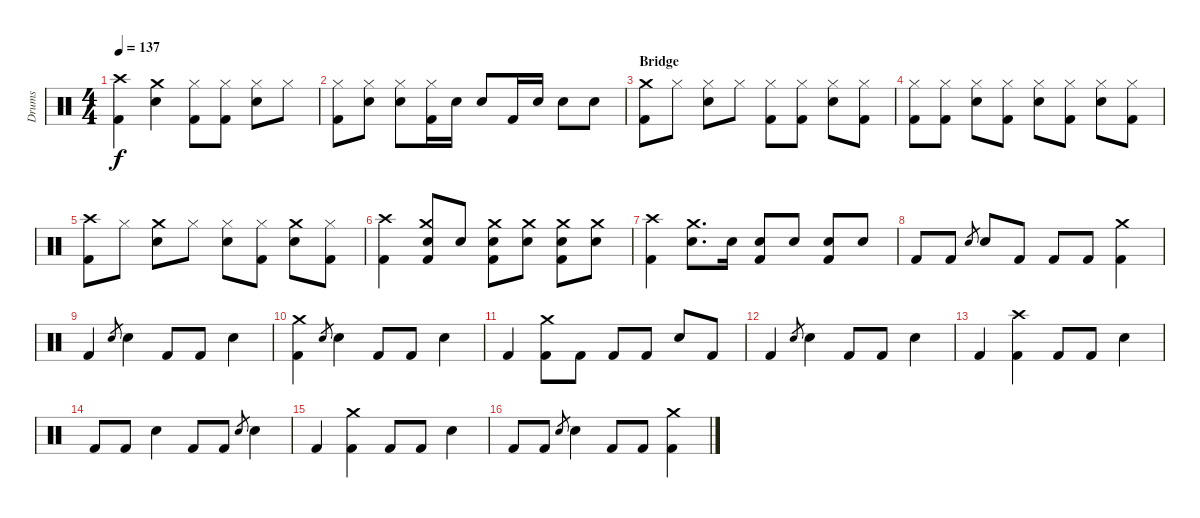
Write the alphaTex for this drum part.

\track ("Drums" "Drums") {instrument percussion}
\staff {score}
\articulation defaults
\ts (4 4)
\tempo 137
\clef neutral
\ks c
("Crash high (hit)" "Kick (hit) 2").4{dy f} ("Crash medium (hit)" "Snare (hit) 2").4 ("Hi-Hat (closed)" "Kick (hit) 2").8 ("Hi-Hat (closed)" "Kick (hit) 2").8 ("Hi-Hat (closed)" "Snare (hit) 2").8 "Hi-Hat (closed)".8 |
("Hi-Hat (closed)" "Kick (hit) 2").8 ("Hi-Hat (closed)" "Snare (hit) 2").8 ("Hi-Hat (closed)" "Snare (hit) 2").8 ("Hi-Hat (closed)" "Kick (hit) 2").16 "Snare (hit) 2".16 "Snare (hit) 2".8 "Kick (hit) 2".16 "Snare (hit) 2".16 "Snare (hit) 2".8 "Snare (hit) 2".8 |
\section ("" "Bridge")
("Crash medium (hit)" "Kick (hit) 2").8 "Hi-Hat (closed)".8 ("Hi-Hat (closed)" "Snare (hit) 2").8 "Hi-Hat (closed)".8 ("Hi-Hat (closed)" "Kick (hit) 2").8 ("Hi-Hat (closed)" "Kick (hit) 2").8 ("Hi-Hat (closed)" "Snare (hit) 2").8 ("Hi-Hat (closed)" "Kick (hit) 2").8 |
("Hi-Hat (closed)" "Kick (hit) 2").8 ("Hi-Hat (closed)" "Kick (hit) 2").8 ("Hi-Hat (closed)" "Snare (hit) 2").8 ("Hi-Hat (closed)" "Kick (hit) 2").8 ("Hi-Hat (closed)" "Snare (hit) 2").8 ("Hi-Hat (closed)" "Kick (hit) 2").8 ("Hi-Hat (closed)" "Snare (hit) 2").8 ("Hi-Hat (closed)" "Kick (hit) 2").8 |
("Crash high (hit)" "Kick (hit) 2").8 "Hi-Hat (closed)".8 ("Crash medium (hit)" "Snare (hit) 2").8 "Hi-Hat (closed)".8 ("Hi-Hat (closed)" "Snare (hit) 2").8 ("Hi-Hat (closed)" "Kick (hit) 2").8 ("Crash medium (hit)" "Snare (hit) 2").8 ("Hi-Hat (closed)" "Kick (hit) 2").8 |
("Crash high (hit)" "Kick (hit) 2").4 ("Crash medium (hit)" "Snare (hit) 2" "Kick (hit) 2").8 "Snare (hit) 2".8 ("Crash medium (hit)" "Snare (hit) 2" "Kick (hit) 2").8 ("Crash medium (hit)" "Snare (hit) 2").8 ("Crash medium (hit)" "Snare (hit) 2" "Kick (hit) 2").8 ("Crash medium (hit)" "Snare (hit) 2").8 |
("Crash high (hit)" "Kick (hit) 2").4 ("Crash medium (hit)" "Snare (hit) 2").8{d} "Snare (hit) 2".16 ("Snare (hit) 2" "Kick (hit) 2").8 "Snare (hit) 2".8 ("Snare (hit) 2" "Kick (hit) 2").8 "Snare (hit) 2".8 |
"Kick (hit) 2".8 "Kick (hit) 2".8 "Snare (hit) 2".8{gr} "Snare (hit) 2".8 "Kick (hit) 2".8 "Kick (hit) 2".8 "Kick (hit) 2".8 ("Crash medium (hit)" "Kick (hit) 2").4 |
"Kick (hit) 2".4 "Snare (hit) 2".8{gr} "Snare (hit) 2".4 "Kick (hit) 2".8 "Kick (hit) 2".8 "Snare (hit) 2".4 |
("Crash medium (hit)" "Kick (hit) 2").4 "Snare (hit) 2".8{gr} "Snare (hit) 2".4 "Kick (hit) 2".8 "Kick (hit) 2".8 "Snare (hit) 2".4 |
"Kick (hit) 2".4 ("Crash medium (hit)" "Kick (hit) 2").8 "Kick (hit) 2".8 "Kick (hit) 2".8 "Kick (hit) 2".8 "Snare (hit) 2".8 "Kick (hit) 2".8 |
"Kick (hit) 2".4 "Snare (hit) 2".8{gr} "Snare (hit) 2".4 "Kick (hit) 2".8 "Kick (hit) 2".8 "Snare (hit) 2".4 |
"Kick (hit) 2".4 ("Crash high (hit)" "Kick (hit) 2").4 "Kick (hit) 2".8 "Kick (hit) 2".8 "Snare (hit) 2".4 |
"Kick (hit) 2".8 "Kick (hit) 2".8 "Snare (hit) 2".4 "Kick (hit) 2".8 "Kick (hit) 2".8 "Snare (hit) 2".8{gr} "Snare (hit) 2".4 |
"Kick (hit) 2".4 ("Crash medium (hit)" "Kick (hit) 2").4 "Kick (hit) 2".8 "Kick (hit) 2".8 "Snare (hit) 2".4 |
"Kick (hit) 2".8 "Kick (hit) 2".8 "Snare (hit) 2".8{gr} "Snare (hit) 2".4 "Kick (hit) 2".8 "Kick (hit) 2".8 ("Crash medium (hit)" "Kick (hit) 2").4
